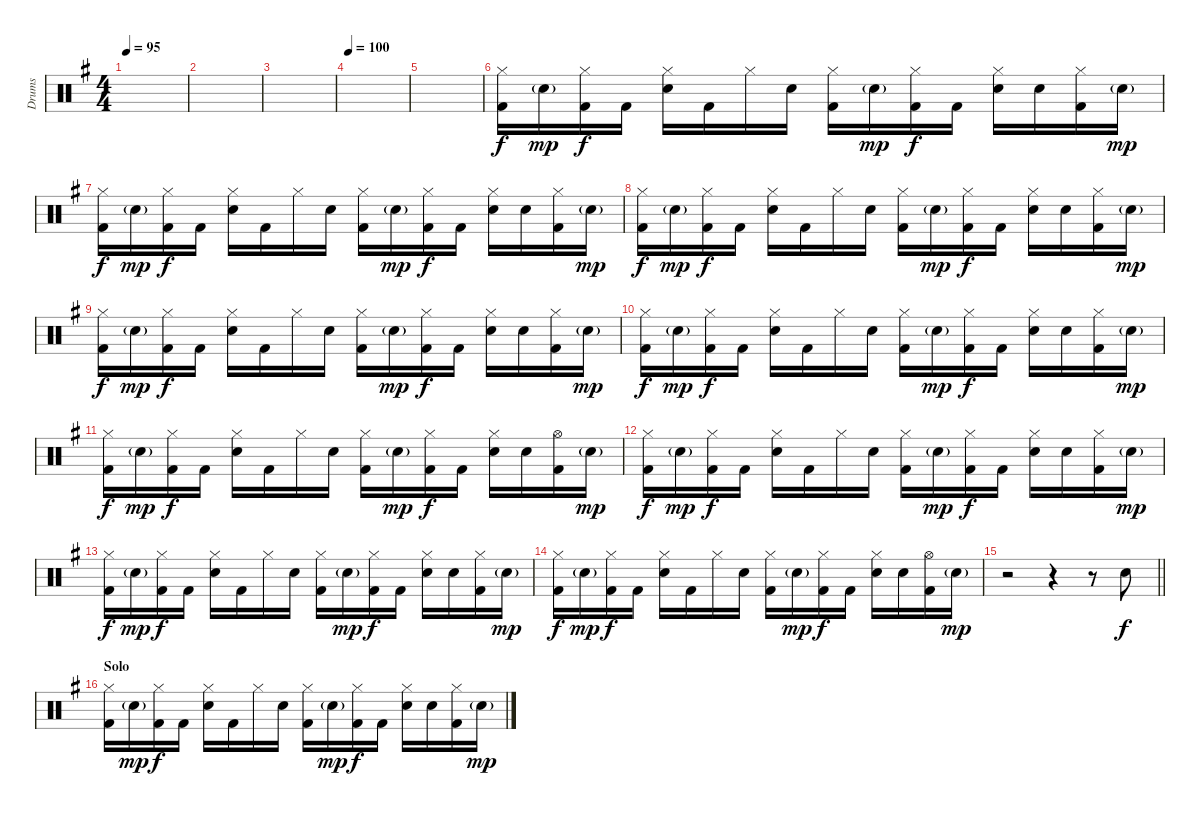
\track ("Drums" "Drums") {instrument percussion}
\staff {score}
\articulation defaults
\ts (4 4)
\tempo 95
\clef neutral
\ks g
|
|
|
\tempo 100
|
|
("Hi-Hat (closed)" "Kick (hit) 2").16 "Electric Snare (hit)"{g}.16{dy mp} ("Kick (hit) 2" "Hi-Hat (closed)").16{dy f} "Kick (hit) 2".16 ("Electric Snare (hit)" "Hi-Hat (closed)").16 "Kick (hit) 2".16 "Hi-Hat (closed)".16 "Electric Snare (hit)".16 ("Kick (hit) 2" "Hi-Hat (closed)").16 "Electric Snare (hit)"{g}.16{dy mp} ("Hi-Hat (closed)" "Kick (hit) 2").16{dy f} "Kick (hit) 2".16 ("Electric Snare (hit)" "Hi-Hat (closed)").16 "Electric Snare (hit)".16 ("Hi-Hat (closed)" "Kick (hit) 2").16 "Electric Snare (hit)"{g}.16{dy mp} |
("Hi-Hat (closed)" "Kick (hit) 2").16{dy f} "Electric Snare (hit)"{g}.16{dy mp} ("Kick (hit) 2" "Hi-Hat (closed)").16{dy f} "Kick (hit) 2".16 ("Electric Snare (hit)" "Hi-Hat (closed)").16 "Kick (hit) 2".16 "Hi-Hat (closed)".16 "Electric Snare (hit)".16 ("Kick (hit) 2" "Hi-Hat (closed)").16 "Electric Snare (hit)"{g}.16{dy mp} ("Hi-Hat (closed)" "Kick (hit) 2").16{dy f} "Kick (hit) 2".16 ("Electric Snare (hit)" "Hi-Hat (closed)").16 "Electric Snare (hit)".16 ("Hi-Hat (closed)" "Kick (hit) 2").16 "Electric Snare (hit)"{g}.16{dy mp} |
("Hi-Hat (closed)" "Kick (hit) 2").16{dy f} "Electric Snare (hit)"{g}.16{dy mp} ("Kick (hit) 2" "Hi-Hat (closed)").16{dy f} "Kick (hit) 2".16 ("Electric Snare (hit)" "Hi-Hat (closed)").16 "Kick (hit) 2".16 "Hi-Hat (closed)".16 "Electric Snare (hit)".16 ("Kick (hit) 2" "Hi-Hat (closed)").16 "Electric Snare (hit)"{g}.16{dy mp} ("Hi-Hat (closed)" "Kick (hit) 2").16{dy f} "Kick (hit) 2".16 ("Electric Snare (hit)" "Hi-Hat (closed)").16 "Electric Snare (hit)".16 ("Hi-Hat (closed)" "Kick (hit) 2").16 "Electric Snare (hit)"{g}.16{dy mp} |
("Hi-Hat (closed)" "Kick (hit) 2").16{dy f} "Electric Snare (hit)"{g}.16{dy mp} ("Kick (hit) 2" "Hi-Hat (closed)").16{dy f} "Kick (hit) 2".16 ("Electric Snare (hit)" "Hi-Hat (closed)").16 "Kick (hit) 2".16 "Hi-Hat (closed)".16 "Electric Snare (hit)".16 ("Kick (hit) 2" "Hi-Hat (closed)").16 "Electric Snare (hit)"{g}.16{dy mp} ("Hi-Hat (closed)" "Kick (hit) 2").16{dy f} "Kick (hit) 2".16 ("Electric Snare (hit)" "Hi-Hat (closed)").16 "Electric Snare (hit)".16 ("Hi-Hat (closed)" "Kick (hit) 2").16 "Electric Snare (hit)"{g}.16{dy mp} |
("Hi-Hat (closed)" "Kick (hit) 2").16{dy f} "Electric Snare (hit)"{g}.16{dy mp} ("Kick (hit) 2" "Hi-Hat (closed)").16{dy f} "Kick (hit) 2".16 ("Electric Snare (hit)" "Hi-Hat (closed)").16 "Kick (hit) 2".16 "Hi-Hat (closed)".16 "Electric Snare (hit)".16 ("Kick (hit) 2" "Hi-Hat (closed)").16 "Electric Snare (hit)"{g}.16{dy mp} ("Hi-Hat (closed)" "Kick (hit) 2").16{dy f} "Kick (hit) 2".16 ("Electric Snare (hit)" "Hi-Hat (closed)").16 "Electric Snare (hit)".16 ("Hi-Hat (closed)" "Kick (hit) 2").16 "Electric Snare (hit)"{g}.16{dy mp} |
("Hi-Hat (closed)" "Kick (hit) 2").16{dy f} "Electric Snare (hit)"{g}.16{dy mp} ("Kick (hit) 2" "Hi-Hat (closed)").16{dy f} "Kick (hit) 2".16 ("Electric Snare (hit)" "Hi-Hat (closed)").16 "Kick (hit) 2".16 "Hi-Hat (closed)".16 "Electric Snare (hit)".16 ("Kick (hit) 2" "Hi-Hat (closed)").16 "Electric Snare (hit)"{g}.16{dy mp} ("Hi-Hat (closed)" "Kick (hit) 2").16{dy f} "Kick (hit) 2".16 ("Electric Snare (hit)" "Hi-Hat (closed)").16 "Electric Snare (hit)".16 ("Hi-Hat (open)" "Kick (hit) 2").16 "Electric Snare (hit)"{g}.16{dy mp} |
("Hi-Hat (closed)" "Kick (hit) 2").16{dy f} "Electric Snare (hit)"{g}.16{dy mp} ("Kick (hit) 2" "Hi-Hat (closed)").16{dy f} "Kick (hit) 2".16 ("Electric Snare (hit)" "Hi-Hat (closed)").16 "Kick (hit) 2".16 "Hi-Hat (closed)".16 "Electric Snare (hit)".16 ("Kick (hit) 2" "Hi-Hat (closed)").16 "Electric Snare (hit)"{g}.16{dy mp} ("Hi-Hat (closed)" "Kick (hit) 2").16{dy f} "Kick (hit) 2".16 ("Electric Snare (hit)" "Hi-Hat (closed)").16 "Electric Snare (hit)".16 ("Hi-Hat (closed)" "Kick (hit) 2").16 "Electric Snare (hit)"{g}.16{dy mp} |
("Hi-Hat (closed)" "Kick (hit) 2").16{dy f} "Electric Snare (hit)"{g}.16{dy mp} ("Kick (hit) 2" "Hi-Hat (closed)").16{dy f} "Kick (hit) 2".16 ("Electric Snare (hit)" "Hi-Hat (closed)").16 "Kick (hit) 2".16 "Hi-Hat (closed)".16 "Electric Snare (hit)".16 ("Kick (hit) 2" "Hi-Hat (closed)").16 "Electric Snare (hit)"{g}.16{dy mp} ("Hi-Hat (closed)" "Kick (hit) 2").16{dy f} "Kick (hit) 2".16 ("Electric Snare (hit)" "Hi-Hat (closed)").16 "Electric Snare (hit)".16 ("Hi-Hat (closed)" "Kick (hit) 2").16 "Electric Snare (hit)"{g}.16{dy mp} |
("Hi-Hat (closed)" "Kick (hit) 2").16{dy f} "Electric Snare (hit)"{g}.16{dy mp} ("Kick (hit) 2" "Hi-Hat (closed)").16{dy f} "Kick (hit) 2".16 ("Electric Snare (hit)" "Hi-Hat (closed)").16 "Kick (hit) 2".16 "Hi-Hat (closed)".16 "Electric Snare (hit)".16 ("Kick (hit) 2" "Hi-Hat (closed)").16 "Electric Snare (hit)"{g}.16{dy mp} ("Hi-Hat (closed)" "Kick (hit) 2").16{dy f} "Kick (hit) 2".16 ("Electric Snare (hit)" "Hi-Hat (closed)").16 "Electric Snare (hit)".16 ("Hi-Hat (open)" "Kick (hit) 2").16 "Electric Snare (hit)"{g}.16{dy mp} |
\barLineRight lightlight
r.2 r.4 r.8 "Electric Snare (hit)".8{dy f} |
\section ("" "Solo")
("Hi-Hat (closed)" "Kick (hit) 2").16 "Electric Snare (hit)"{g}.16{dy mp} ("Kick (hit) 2" "Hi-Hat (closed)").16{dy f} "Kick (hit) 2".16 ("Electric Snare (hit)" "Hi-Hat (closed)").16 "Kick (hit) 2".16 "Hi-Hat (closed)".16 "Electric Snare (hit)".16 ("Kick (hit) 2" "Hi-Hat (closed)").16 "Electric Snare (hit)"{g}.16{dy mp} ("Hi-Hat (closed)" "Kick (hit) 2").16{dy f} "Kick (hit) 2".16 ("Electric Snare (hit)" "Hi-Hat (closed)").16 "Electric Snare (hit)".16 ("Hi-Hat (closed)" "Kick (hit) 2").16 "Electric Snare (hit)"{g}.16{dy mp}
